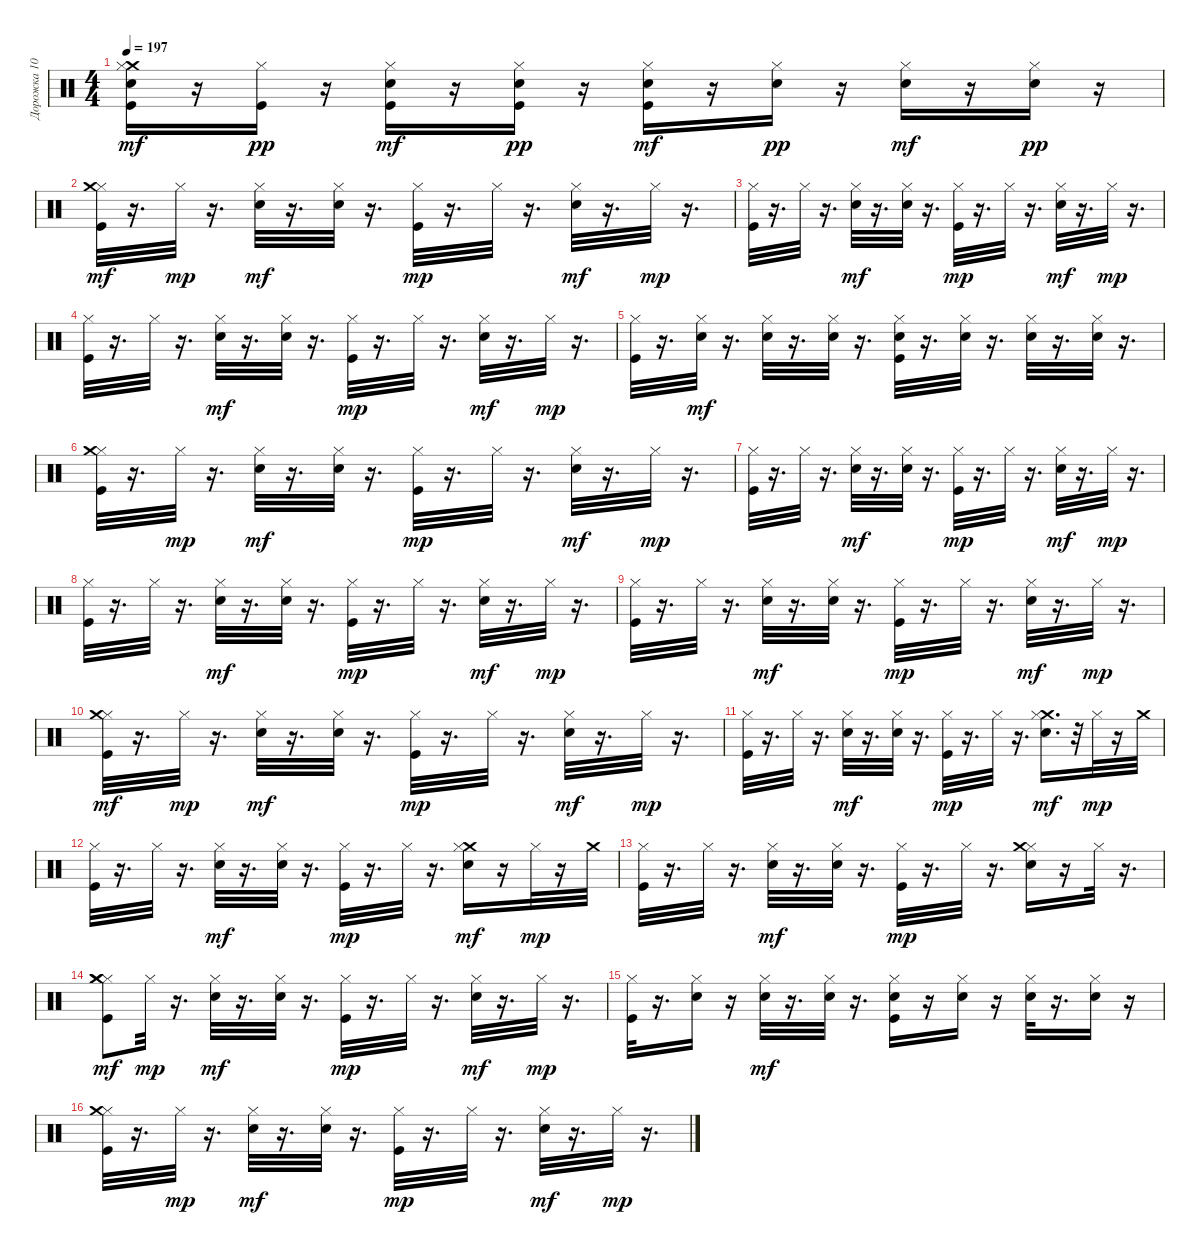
\track ("Дорожка 10" "Дорожка 10") {instrument percussion}
\staff {score}
\articulation defaults
\ts (4 4)
\tempo 197
\clef neutral
\ks c
("Crash medium (hit)" "Snare (hit) 2" "Kick (hit)" "Hi-Hat (closed)").16{dy mf} r.16 ("Kick (hit)" "Hi-Hat (closed)").16{dy pp} r.16 ("Snare (hit) 2" "Kick (hit)" "Hi-Hat (closed)").16{dy mf} r.16 ("Snare (hit) 2" "Kick (hit)" "Hi-Hat (closed)").16{dy pp} r.16 ("Snare (hit) 2" "Kick (hit)" "Hi-Hat (closed)").16{dy mf} r.16 ("Snare (hit) 2" "Hi-Hat (closed)").16{dy pp} r.16 ("Snare (hit) 2" "Hi-Hat (closed)").16{dy mf} r.16 ("Snare (hit) 2" "Hi-Hat (closed)").16{dy pp} r.16 |
("Hi-Hat (closed)" "Kick (hit)" "Crash medium (hit)").32{dy mf} r.16{d} "Hi-Hat (closed)".32{dy mp} r.16{d} ("Hi-Hat (closed)" "Electric Snare (hit)").32{dy mf} r.16{d} ("Hi-Hat (closed)" "Electric Snare (hit)").32 r.16{d} ("Hi-Hat (closed)" "Kick (hit)").32{dy mp} r.16{d} "Hi-Hat (closed)".32 r.16{d} ("Hi-Hat (closed)" "Electric Snare (hit)").32{dy mf} r.16{d} "Hi-Hat (closed)".32{dy mp} r.16{d} |
("Hi-Hat (closed)" "Kick (hit)").32 r.16{d} "Hi-Hat (closed)".32 r.16{d} ("Hi-Hat (closed)" "Electric Snare (hit)").32{dy mf} r.16{d} ("Hi-Hat (closed)" "Electric Snare (hit)").32 r.16{d} ("Hi-Hat (closed)" "Kick (hit)").32{dy mp} r.16{d} "Hi-Hat (closed)".32 r.16{d} ("Hi-Hat (closed)" "Electric Snare (hit)").32{dy mf} r.16{d} "Hi-Hat (closed)".32{dy mp} r.16{d} |
("Hi-Hat (closed)" "Kick (hit)").32 r.16{d} "Hi-Hat (closed)".32 r.16{d} ("Hi-Hat (closed)" "Electric Snare (hit)").32{dy mf} r.16{d} ("Hi-Hat (closed)" "Electric Snare (hit)").32 r.16{d} ("Hi-Hat (closed)" "Kick (hit)").32{dy mp} r.16{d} "Hi-Hat (closed)".32 r.16{d} ("Hi-Hat (closed)" "Electric Snare (hit)").32{dy mf} r.16{d} "Hi-Hat (closed)".32{dy mp} r.16{d} |
("Hi-Hat (closed)" "Kick (hit)").32 r.16{d} ("Hi-Hat (closed)" "Electric Snare (hit)").32{dy mf} r.16{d} ("Hi-Hat (closed)" "Electric Snare (hit)").32 r.16{d} ("Hi-Hat (closed)" "Electric Snare (hit)").32 r.16{d} ("Hi-Hat (closed)" "Kick (hit)" "Electric Snare (hit)").32 r.16{d} ("Hi-Hat (closed)" "Electric Snare (hit)").32 r.16{d} ("Hi-Hat (closed)" "Electric Snare (hit)").32 r.16{d} ("Hi-Hat (closed)" "Electric Snare (hit)").32 r.16{d} |
("Hi-Hat (closed)" "Kick (hit)" "Crash medium (hit)").32 r.16{d} "Hi-Hat (closed)".32{dy mp} r.16{d} ("Hi-Hat (closed)" "Electric Snare (hit)").32{dy mf} r.16{d} ("Hi-Hat (closed)" "Electric Snare (hit)").32 r.16{d} ("Hi-Hat (closed)" "Kick (hit)").32{dy mp} r.16{d} "Hi-Hat (closed)".32 r.16{d} ("Hi-Hat (closed)" "Electric Snare (hit)").32{dy mf} r.16{d} "Hi-Hat (closed)".32{dy mp} r.16{d} |
("Hi-Hat (closed)" "Kick (hit)").32 r.16{d} "Hi-Hat (closed)".32 r.16{d} ("Hi-Hat (closed)" "Electric Snare (hit)").32{dy mf} r.16{d} ("Hi-Hat (closed)" "Electric Snare (hit)").32 r.16{d} ("Hi-Hat (closed)" "Kick (hit)").32{dy mp} r.16{d} "Hi-Hat (closed)".32 r.16{d} ("Hi-Hat (closed)" "Electric Snare (hit)").32{dy mf} r.16{d} "Hi-Hat (closed)".32{dy mp} r.16{d} |
("Hi-Hat (closed)" "Kick (hit)").32 r.16{d} "Hi-Hat (closed)".32 r.16{d} ("Hi-Hat (closed)" "Electric Snare (hit)").32{dy mf} r.16{d} ("Hi-Hat (closed)" "Electric Snare (hit)").32 r.16{d} ("Hi-Hat (closed)" "Kick (hit)").32{dy mp} r.16{d} "Hi-Hat (closed)".32 r.16{d} ("Hi-Hat (closed)" "Electric Snare (hit)").32{dy mf} r.16{d} "Hi-Hat (closed)".32{dy mp} r.16{d} |
("Hi-Hat (closed)" "Kick (hit)").32 r.16{d} "Hi-Hat (closed)".32 r.16{d} ("Hi-Hat (closed)" "Electric Snare (hit)").32{dy mf} r.16{d} ("Hi-Hat (closed)" "Electric Snare (hit)").32 r.16{d} ("Hi-Hat (closed)" "Kick (hit)").32{dy mp} r.16{d} "Hi-Hat (closed)".32 r.16{d} ("Hi-Hat (closed)" "Electric Snare (hit)").32{dy mf} r.16{d} "Hi-Hat (closed)".32{dy mp} r.16{d} |
("Hi-Hat (closed)" "Kick (hit)" "Crash medium (hit)").32{dy mf} r.16{d} "Hi-Hat (closed)".32{dy mp} r.16{d} ("Hi-Hat (closed)" "Electric Snare (hit)").32{dy mf} r.16{d} ("Hi-Hat (closed)" "Electric Snare (hit)").32 r.16{d} ("Hi-Hat (closed)" "Kick (hit)").32{dy mp} r.16{d} "Hi-Hat (closed)".32 r.16{d} ("Hi-Hat (closed)" "Electric Snare (hit)").32{dy mf} r.16{d} "Hi-Hat (closed)".32{dy mp} r.16{d} |
("Hi-Hat (closed)" "Kick (hit)").32 r.16{d} "Hi-Hat (closed)".32 r.16{d} ("Hi-Hat (closed)" "Electric Snare (hit)").32{dy mf} r.16{d} ("Hi-Hat (closed)" "Electric Snare (hit)").32 r.16{d} ("Hi-Hat (closed)" "Kick (hit)").32{dy mp} r.16{d} "Hi-Hat (closed)".32 r.16{d} ("Crash medium (hit)" "Hi-Hat (closed)" "Electric Snare (hit)").16{d dy mf} r.32 "Hi-Hat (closed)".32{dy mp} r.16 "Crash medium (hit)".32 |
("Hi-Hat (closed)" "Kick (hit)").32 r.16{d} "Hi-Hat (closed)".32 r.16{d} ("Hi-Hat (closed)" "Electric Snare (hit)").32{dy mf} r.16{d} ("Hi-Hat (closed)" "Electric Snare (hit)").32 r.16{d} ("Hi-Hat (closed)" "Kick (hit)").32{dy mp} r.16{d} "Hi-Hat (closed)".32 r.16{d} ("Crash medium (hit)" "Hi-Hat (closed)" "Electric Snare (hit)").16{dy mf} r.16 "Hi-Hat (closed)".32{dy mp} r.16 "Crash medium (hit)".32 |
("Hi-Hat (closed)" "Kick (hit)").32 r.16{d} "Hi-Hat (closed)".32 r.16{d} ("Hi-Hat (closed)" "Electric Snare (hit)").32{dy mf} r.16{d} ("Hi-Hat (closed)" "Electric Snare (hit)").32 r.16{d} ("Hi-Hat (closed)" "Kick (hit)").32{dy mp} r.16{d} "Hi-Hat (closed)".32 r.16{d} ("Hi-Hat (closed)" "Electric Snare (hit)" "Crash medium (hit)").16 r.16 "Hi-Hat (closed)".32 r.16{d} |
("Hi-Hat (closed)" "Kick (hit)" "Crash medium (hit)" "Crash medium (hit)").8{dy mf} "Hi-Hat (closed)".32{dy mp} r.16{d} ("Hi-Hat (closed)" "Electric Snare (hit)").32{dy mf} r.16{d} ("Hi-Hat (closed)" "Electric Snare (hit)").32 r.16{d} ("Hi-Hat (closed)" "Kick (hit)").32{dy mp} r.16{d} "Hi-Hat (closed)".32 r.16{d} ("Hi-Hat (closed)" "Electric Snare (hit)").32{dy mf} r.16{d} "Hi-Hat (closed)".32{dy mp} r.16{d} |
("Hi-Hat (closed)" "Kick (hit)").32 r.16{d} ("Hi-Hat (closed)" "Electric Snare (hit)").16 r.16 ("Hi-Hat (closed)" "Electric Snare (hit)").32{dy mf} r.16{d} ("Hi-Hat (closed)" "Electric Snare (hit)").32 r.16{d} ("Hi-Hat (closed)" "Kick (hit)" "Electric Snare (hit)").16 r.16 ("Hi-Hat (closed)" "Electric Snare (hit)").16 r.16 ("Hi-Hat (closed)" "Electric Snare (hit)").32 r.16{d} ("Hi-Hat (closed)" "Electric Snare (hit)").16 r.16 |
("Hi-Hat (closed)" "Kick (hit)" "Crash medium (hit)").32 r.16{d} "Hi-Hat (closed)".32{dy mp} r.16{d} ("Hi-Hat (closed)" "Electric Snare (hit)").32{dy mf} r.16{d} ("Hi-Hat (closed)" "Electric Snare (hit)").32 r.16{d} ("Hi-Hat (closed)" "Kick (hit)").32{dy mp} r.16{d} "Hi-Hat (closed)".32 r.16{d} ("Hi-Hat (closed)" "Electric Snare (hit)").32{dy mf} r.16{d} "Hi-Hat (closed)".32{dy mp} r.16{d}
